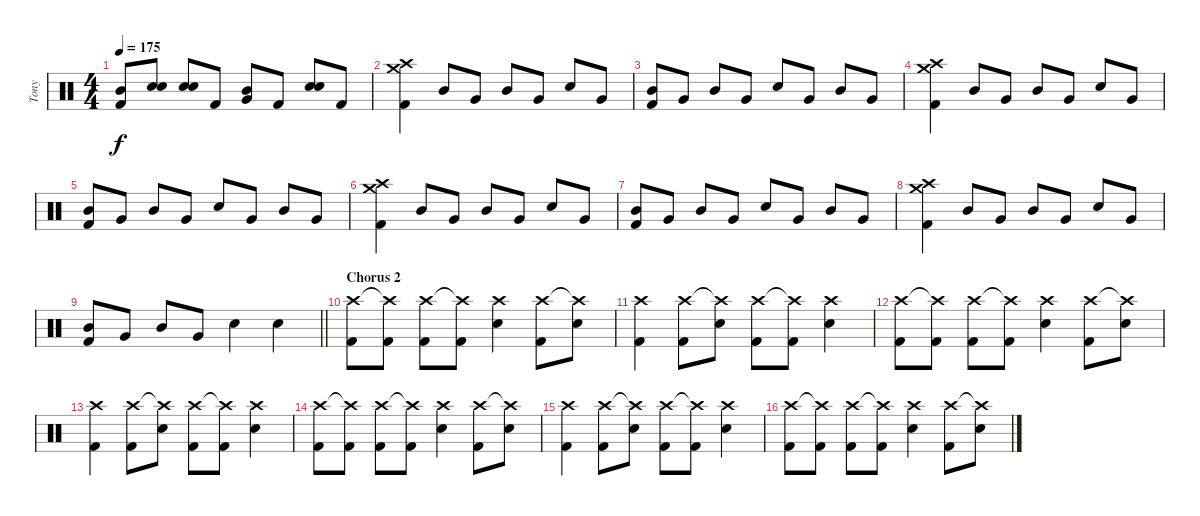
\track ("Tony" "Tony") {instrument percussion}
\staff {score}
\articulation defaults
\ts (4 4)
\tempo 175
\clef neutral
\ks c
("Mid Tom (hit)" "Kick (hit) 2").8{dy f} ("Snare (hit) 2" "Snare (hit) 2").8 ("Snare (hit) 2" "Snare (hit) 2").8 "Kick (hit) 2".8 ("Mid Tom (hit)" "Very Low Tom (hit)").8 "Kick (hit) 2".8 ("Snare (hit) 2" "Snare (hit) 2").8 "Kick (hit) 2".8 |
("Crash high (hit)" "Crash medium (hit)" "Kick (hit) 2").4 "Mid Tom (hit)".8 "Very Low Tom (hit)".8 "Mid Tom (hit)".8 "Very Low Tom (hit)".8 "Snare (hit) 2".8 "Very Low Tom (hit)".8 |
("Mid Tom (hit)" "Kick (hit) 2").8 "Very Low Tom (hit)".8 "Mid Tom (hit)".8 "Very Low Tom (hit)".8 "Snare (hit) 2".8 "Very Low Tom (hit)".8 "Mid Tom (hit)".8 "Very Low Tom (hit)".8 |
("Crash high (hit)" "Crash medium (hit)" "Kick (hit) 2").4 "Mid Tom (hit)".8 "Very Low Tom (hit)".8 "Mid Tom (hit)".8 "Very Low Tom (hit)".8 "Snare (hit) 2".8 "Very Low Tom (hit)".8 |
("Mid Tom (hit)" "Kick (hit) 2").8 "Very Low Tom (hit)".8 "Mid Tom (hit)".8 "Very Low Tom (hit)".8 "Snare (hit) 2".8 "Very Low Tom (hit)".8 "Mid Tom (hit)".8 "Very Low Tom (hit)".8 |
("Crash high (hit)" "Crash medium (hit)" "Kick (hit) 2").4 "Mid Tom (hit)".8 "Very Low Tom (hit)".8 "Mid Tom (hit)".8 "Very Low Tom (hit)".8 "Snare (hit) 2".8 "Very Low Tom (hit)".8 |
("Mid Tom (hit)" "Kick (hit) 2").8 "Very Low Tom (hit)".8 "Mid Tom (hit)".8 "Very Low Tom (hit)".8 "Snare (hit) 2".8 "Very Low Tom (hit)".8 "Mid Tom (hit)".8 "Very Low Tom (hit)".8 |
("Crash high (hit)" "Crash medium (hit)" "Kick (hit) 2").4 "Mid Tom (hit)".8 "Very Low Tom (hit)".8 "Mid Tom (hit)".8 "Very Low Tom (hit)".8 "Snare (hit) 2".8 "Very Low Tom (hit)".8 |
\barLineRight lightlight
("Mid Tom (hit)" "Kick (hit) 2").8 "Very Low Tom (hit)".8 "Mid Tom (hit)".8 "Very Low Tom (hit)".8 "Snare (hit) 2".4 "Snare (hit) 2".4 |
\section ("" "Chorus 2")
("Crash high (hit)" "Kick (hit) 2").8 ("Crash high (hit)"{t} "Kick (hit) 2").8 ("Crash high (hit)" "Kick (hit) 2").8 ("Crash high (hit)"{t} "Kick (hit) 2").8 ("Crash high (hit)" "Snare (hit) 2").4 ("Crash high (hit)" "Kick (hit) 2").8 ("Crash high (hit)"{t} "Snare (hit) 2").8 |
("Crash high (hit)" "Kick (hit) 2").4 ("Crash high (hit)" "Kick (hit) 2").8 ("Crash high (hit)"{t} "Snare (hit) 2").8 ("Crash high (hit)" "Kick (hit) 2").8 ("Crash high (hit)"{t} "Kick (hit) 2").8 ("Crash high (hit)" "Snare (hit) 2").4 |
("Crash high (hit)" "Kick (hit) 2").8 ("Crash high (hit)"{t} "Kick (hit) 2").8 ("Crash high (hit)" "Kick (hit) 2").8 ("Crash high (hit)"{t} "Kick (hit) 2").8 ("Crash high (hit)" "Snare (hit) 2").4 ("Crash high (hit)" "Kick (hit) 2").8 ("Crash high (hit)"{t} "Snare (hit) 2").8 |
("Crash high (hit)" "Kick (hit) 2").4 ("Crash high (hit)" "Kick (hit) 2").8 ("Crash high (hit)"{t} "Snare (hit) 2").8 ("Crash high (hit)" "Kick (hit) 2").8 ("Crash high (hit)"{t} "Kick (hit) 2").8 ("Crash high (hit)" "Snare (hit) 2").4 |
("Crash high (hit)" "Kick (hit) 2").8 ("Crash high (hit)"{t} "Kick (hit) 2").8 ("Crash high (hit)" "Kick (hit) 2").8 ("Crash high (hit)"{t} "Kick (hit) 2").8 ("Crash high (hit)" "Snare (hit) 2").4 ("Crash high (hit)" "Kick (hit) 2").8 ("Crash high (hit)"{t} "Snare (hit) 2").8 |
("Crash high (hit)" "Kick (hit) 2").4 ("Crash high (hit)" "Kick (hit) 2").8 ("Crash high (hit)"{t} "Snare (hit) 2").8 ("Crash high (hit)" "Kick (hit) 2").8 ("Crash high (hit)"{t} "Kick (hit) 2").8 ("Crash high (hit)" "Snare (hit) 2").4 |
("Crash high (hit)" "Kick (hit) 2").8 ("Crash high (hit)"{t} "Kick (hit) 2").8 ("Crash high (hit)" "Kick (hit) 2").8 ("Crash high (hit)"{t} "Kick (hit) 2").8 ("Crash high (hit)" "Snare (hit) 2").4 ("Crash high (hit)" "Kick (hit) 2").8 ("Crash high (hit)"{t} "Snare (hit) 2").8
